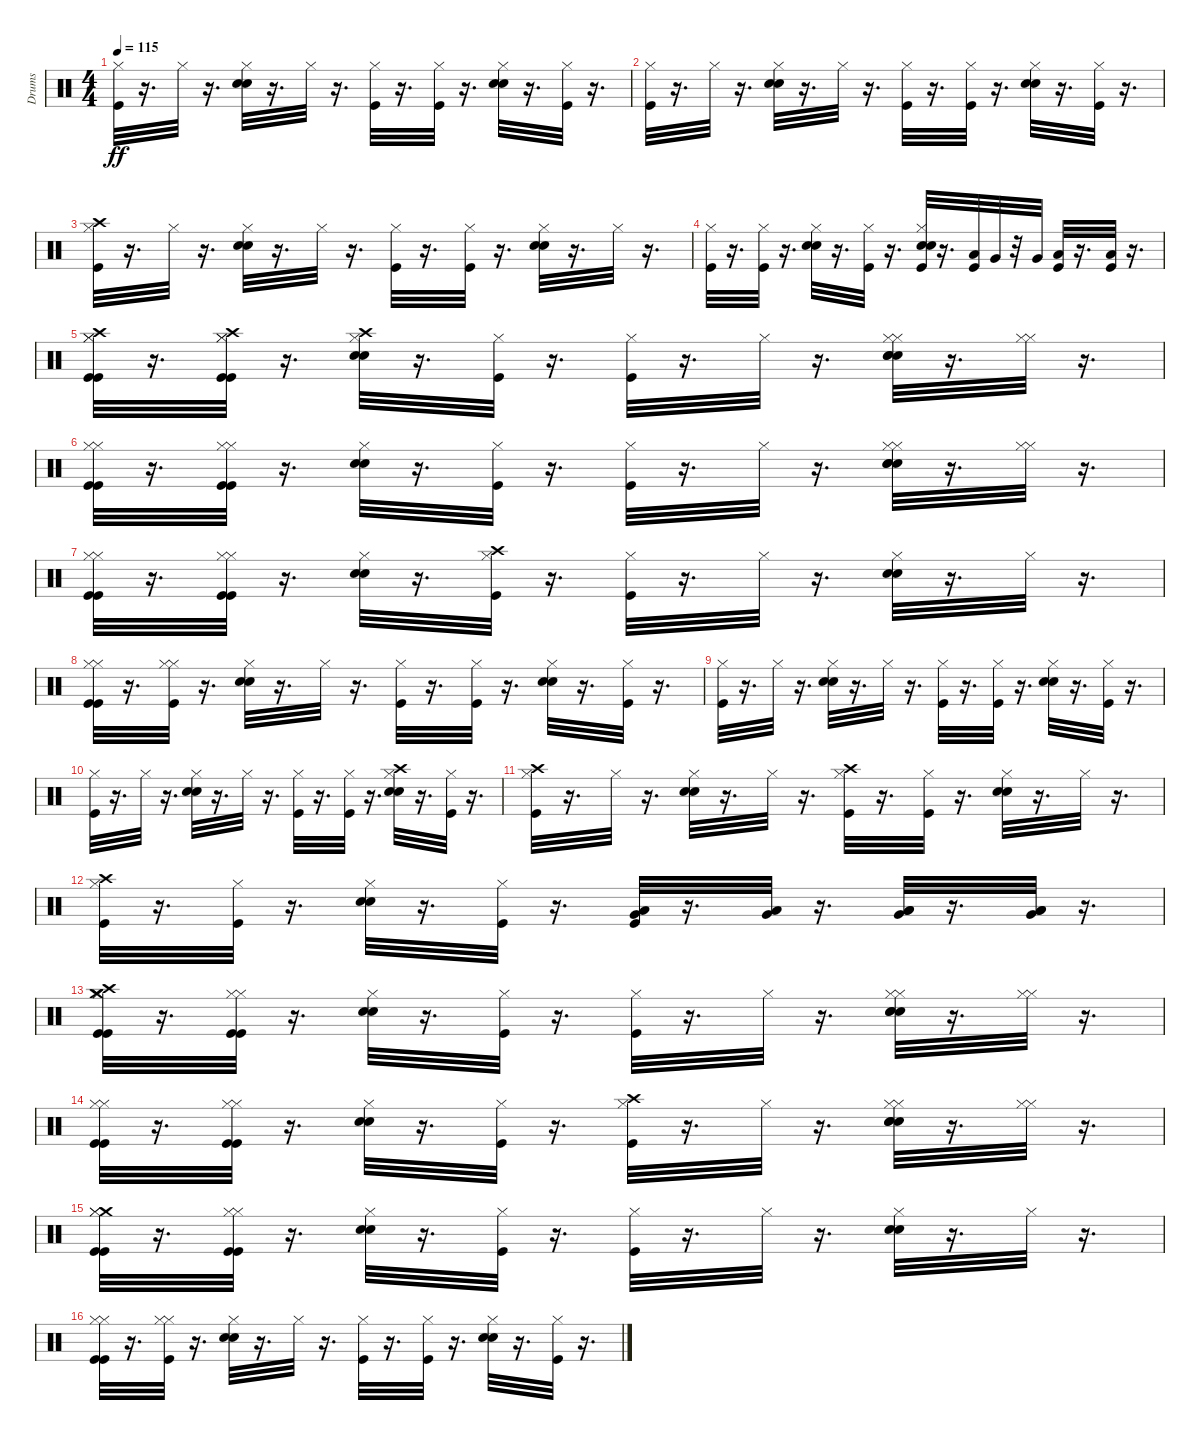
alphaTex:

\track ("Drums" "Drums") {instrument percussion}
\staff {score}
\articulation defaults
\ts (4 4)
\tempo 115
\clef neutral
\ks c
("Kick (hit)" "Hi-Hat (closed)").32{dy ff} r.16{d} "Hi-Hat (closed)".32 r.16{d} ("Electric Snare (hit)" "Snare (hit) 2" "Hi-Hat (closed)").32 r.16{d} "Hi-Hat (closed)".32 r.16{d} ("Kick (hit)" "Hi-Hat (closed)").32 r.16{d} ("Kick (hit)" "Hi-Hat (closed)").32 r.16{d} ("Electric Snare (hit)" "Hi-Hat (closed)" "Snare (hit) 2").32 r.16{d} ("Kick (hit)" "Hi-Hat (closed)").32 r.16{d} |
("Kick (hit)" "Hi-Hat (closed)").32 r.16{d} "Hi-Hat (closed)".32 r.16{d} ("Electric Snare (hit)" "Snare (hit) 2" "Hi-Hat (closed)").32 r.16{d} "Hi-Hat (closed)".32 r.16{d} ("Kick (hit)" "Hi-Hat (closed)").32 r.16{d} ("Kick (hit)" "Hi-Hat (closed)").32 r.16{d} ("Electric Snare (hit)" "Hi-Hat (closed)" "Snare (hit) 2").32 r.16{d} ("Kick (hit)" "Hi-Hat (closed)").32 r.16{d} |
("Crash high (hit)" "Kick (hit)" "Hi-Hat (closed)").32 r.16{d} "Hi-Hat (closed)".32 r.16{d} ("Electric Snare (hit)" "Snare (hit) 2" "Hi-Hat (closed)").32 r.16{d} "Hi-Hat (closed)".32 r.16{d} ("Kick (hit)" "Hi-Hat (closed)").32 r.16{d} ("Kick (hit)" "Hi-Hat (closed)").32 r.16{d} ("Electric Snare (hit)" "Snare (hit) 2" "Hi-Hat (closed)").32 r.16{d} "Hi-Hat (closed)".32 r.16{d} |
("Kick (hit)" "Hi-Hat (closed)").32 r.16{d} ("Kick (hit)" "Hi-Hat (closed)").32 r.16{d} ("Electric Snare (hit)" "Hi-Hat (closed)" "Snare (hit) 2").32 r.16{d} ("Kick (hit)" "Hi-Hat (closed)").32 r.16{d} ("Snare (hit) 2" "Electric Snare (hit)" "Kick (hit)" "Hi-Hat (closed)").32 r.16{d} ("Kick (hit)" "Low Tom (hit)").32 "Very Low Tom (hit)".32 r.32 "Very Low Tom (hit)".32 ("Kick (hit)" "Low Floor Tom (hit)").32 r.16{d} ("Kick (hit)" "Low Floor Tom (hit)").32 r.16{d} |
("Crash high (hit)" "Kick (hit)" "Hi-Hat (closed)" "Kick (hit)" "Hi-Hat (closed)").32 r.16{d} ("Crash high (hit)" "Kick (hit)" "Hi-Hat (closed)" "Kick (hit)" "Hi-Hat (closed)").32 r.16{d} ("Crash high (hit)" "Electric Snare (hit)" "Hi-Hat (closed)" "Snare (hit) 2").32 r.16{d} ("Kick (hit)" "Hi-Hat (closed)").32 r.16{d} ("Kick (hit)" "Hi-Hat (closed)").32 r.16{d} "Hi-Hat (closed)".32 r.16{d} ("Electric Snare (hit)" "Snare (hit) 2" "Hi-Hat (closed)" "Snare (hit) 2" "Hi-Hat (closed)").32 r.16{d} ("Hi-Hat (closed)" "Hi-Hat (closed)").32 r.16{d} |
("Kick (hit)" "Hi-Hat (closed)" "Kick (hit)" "Hi-Hat (closed)").32 r.16{d} ("Kick (hit)" "Hi-Hat (closed)" "Kick (hit)" "Hi-Hat (closed)").32 r.16{d} ("Electric Snare (hit)" "Hi-Hat (closed)" "Snare (hit) 2").32 r.16{d} ("Kick (hit)" "Hi-Hat (closed)").32 r.16{d} ("Kick (hit)" "Hi-Hat (closed)").32 r.16{d} "Hi-Hat (closed)".32 r.16{d} ("Electric Snare (hit)" "Snare (hit) 2" "Hi-Hat (closed)" "Snare (hit) 2" "Hi-Hat (closed)").32 r.16{d} ("Hi-Hat (closed)" "Hi-Hat (closed)").32 r.16{d} |
("Kick (hit)" "Hi-Hat (closed)" "Kick (hit)" "Hi-Hat (closed)").32 r.16{d} ("Kick (hit)" "Hi-Hat (closed)" "Kick (hit)" "Hi-Hat (closed)").32 r.16{d} ("Electric Snare (hit)" "Hi-Hat (closed)" "Snare (hit) 2").32 r.16{d} ("Crash high (hit)" "Kick (hit)" "Hi-Hat (closed)").32 r.16{d} ("Kick (hit)" "Hi-Hat (closed)").32 r.16{d} "Hi-Hat (closed)".32 r.16{d} ("Electric Snare (hit)" "Snare (hit) 2" "Hi-Hat (closed)").32 r.16{d} "Hi-Hat (closed)".32 r.16{d} |
("Kick (hit)" "Hi-Hat (closed)" "Kick (hit)" "Hi-Hat (closed)").32 r.16{d} ("Kick (hit)" "Hi-Hat (closed)" "Hi-Hat (closed)").32 r.16{d} ("Electric Snare (hit)" "Snare (hit) 2" "Hi-Hat (closed)").32 r.16{d} "Hi-Hat (closed)".32 r.16{d} ("Kick (hit)" "Hi-Hat (closed)").32 r.16{d} ("Kick (hit)" "Hi-Hat (closed)").32 r.16{d} ("Electric Snare (hit)" "Hi-Hat (closed)" "Snare (hit) 2").32 r.16{d} ("Kick (hit)" "Hi-Hat (closed)").32 r.16{d} |
("Kick (hit)" "Hi-Hat (closed)").32 r.16{d} "Hi-Hat (closed)".32 r.16{d} ("Electric Snare (hit)" "Snare (hit) 2" "Hi-Hat (closed)").32 r.16{d} "Hi-Hat (closed)".32 r.16{d} ("Kick (hit)" "Hi-Hat (closed)").32 r.16{d} ("Kick (hit)" "Hi-Hat (closed)").32 r.16{d} ("Electric Snare (hit)" "Hi-Hat (closed)" "Snare (hit) 2").32 r.16{d} ("Kick (hit)" "Hi-Hat (closed)").32 r.16{d} |
("Kick (hit)" "Hi-Hat (closed)").32 r.16{d} "Hi-Hat (closed)".32 r.16{d} ("Electric Snare (hit)" "Snare (hit) 2" "Hi-Hat (closed)").32 r.16{d} "Hi-Hat (closed)".32 r.16{d} ("Kick (hit)" "Hi-Hat (closed)").32 r.16{d} ("Kick (hit)" "Hi-Hat (closed)").32 r.16{d} ("Crash high (hit)" "Electric Snare (hit)" "Hi-Hat (closed)" "Snare (hit) 2").32 r.16{d} ("Kick (hit)" "Hi-Hat (closed)").32 r.16{d} |
("Crash high (hit)" "Kick (hit)" "Hi-Hat (closed)").32 r.16{d} "Hi-Hat (closed)".32 r.16{d} ("Electric Snare (hit)" "Snare (hit) 2" "Hi-Hat (closed)").32 r.16{d} "Hi-Hat (closed)".32 r.16{d} ("Crash high (hit)" "Kick (hit)" "Hi-Hat (closed)").32 r.16{d} ("Kick (hit)" "Hi-Hat (closed)").32 r.16{d} ("Electric Snare (hit)" "Snare (hit) 2" "Hi-Hat (closed)").32 r.16{d} "Hi-Hat (closed)".32 r.16{d} |
("Crash high (hit)" "Kick (hit)" "Hi-Hat (closed)").32 r.16{d} ("Kick (hit)" "Hi-Hat (closed)").32 r.16{d} ("Electric Snare (hit)" "Hi-Hat (closed)" "Snare (hit) 2").32 r.16{d} ("Kick (hit)" "Hi-Hat (closed)").32 r.16{d} ("Low Tom (hit)" "Very Low Tom (hit)" "Kick (hit)").32 r.16{d} ("Low Tom (hit)" "Very Low Tom (hit)").32 r.16{d} ("Low Tom (hit)" "Very Low Tom (hit)" "Low Floor Tom (hit)").32 r.16{d} ("Low Tom (hit)" "Very Low Tom (hit)" "Low Floor Tom (hit)").32 r.16{d} |
("Crash medium (hit)" "Crash high (hit)" "Kick (hit)" "Hi-Hat (closed)" "Kick (hit)" "Hi-Hat (closed)").32 r.16{d} ("Kick (hit)" "Hi-Hat (closed)" "Kick (hit)" "Hi-Hat (closed)").32 r.16{d} ("Electric Snare (hit)" "Hi-Hat (closed)" "Snare (hit) 2").32 r.16{d} ("Kick (hit)" "Hi-Hat (closed)").32 r.16{d} ("Kick (hit)" "Hi-Hat (closed)").32 r.16{d} "Hi-Hat (closed)".32 r.16{d} ("Electric Snare (hit)" "Snare (hit) 2" "Hi-Hat (closed)" "Snare (hit) 2" "Hi-Hat (closed)").32 r.16{d} ("Hi-Hat (closed)" "Hi-Hat (closed)").32 r.16{d} |
("Kick (hit)" "Hi-Hat (closed)" "Kick (hit)" "Hi-Hat (closed)").32 r.16{d} ("Kick (hit)" "Hi-Hat (closed)" "Kick (hit)" "Hi-Hat (closed)").32 r.16{d} ("Electric Snare (hit)" "Hi-Hat (closed)" "Snare (hit) 2").32 r.16{d} ("Kick (hit)" "Hi-Hat (closed)").32 r.16{d} ("Crash high (hit)" "Kick (hit)" "Hi-Hat (closed)").32 r.16{d} "Hi-Hat (closed)".32 r.16{d} ("Electric Snare (hit)" "Snare (hit) 2" "Hi-Hat (closed)" "Snare (hit) 2" "Hi-Hat (closed)").32 r.16{d} ("Hi-Hat (closed)" "Hi-Hat (closed)").32 r.16{d} |
("Crash medium (hit)" "Kick (hit)" "Hi-Hat (closed)" "Kick (hit)" "Hi-Hat (closed)").32 r.16{d} ("Kick (hit)" "Hi-Hat (closed)" "Kick (hit)" "Hi-Hat (closed)").32 r.16{d} ("Electric Snare (hit)" "Hi-Hat (closed)" "Snare (hit) 2").32 r.16{d} ("Kick (hit)" "Hi-Hat (closed)").32 r.16{d} ("Kick (hit)" "Hi-Hat (closed)").32 r.16{d} "Hi-Hat (closed)".32 r.16{d} ("Electric Snare (hit)" "Snare (hit) 2" "Hi-Hat (closed)").32 r.16{d} "Hi-Hat (closed)".32 r.16{d} |
("Kick (hit)" "Hi-Hat (closed)" "Kick (hit)" "Hi-Hat (closed)").32 r.16{d} ("Kick (hit)" "Hi-Hat (closed)" "Hi-Hat (closed)").32 r.16{d} ("Electric Snare (hit)" "Snare (hit) 2" "Hi-Hat (closed)").32 r.16{d} "Hi-Hat (closed)".32 r.16{d} ("Kick (hit)" "Hi-Hat (closed)").32 r.16{d} ("Kick (hit)" "Hi-Hat (closed)").32 r.16{d} ("Electric Snare (hit)" "Hi-Hat (closed)" "Snare (hit) 2").32 r.16{d} ("Kick (hit)" "Hi-Hat (closed)").32 r.16{d}
